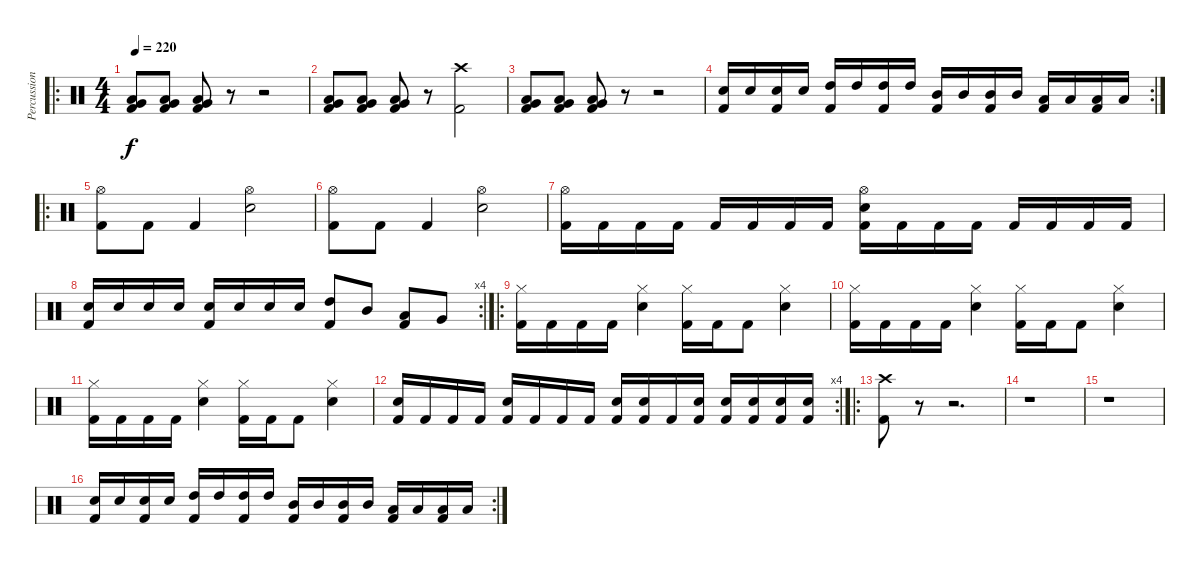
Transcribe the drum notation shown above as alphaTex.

\track ("Percussion" "Percussion") {instrument percussion}
\staff {score}
\articulation defaults
\ro
\ts (4 4)
\tempo 220
\clef neutral
\ks c
("Low Tom (hit)" "Very Low Tom (hit)" "Kick (hit) 2").8{dy f} ("Low Tom (hit)" "Very Low Tom (hit)" "Kick (hit) 2").8 ("Low Tom (hit)" "Very Low Tom (hit)" "Kick (hit) 2").8 r.8 r.2 |
("Low Tom (hit)" "Very Low Tom (hit)" "Kick (hit) 2").8 ("Low Tom (hit)" "Very Low Tom (hit)" "Kick (hit) 2").8 ("Low Tom (hit)" "Very Low Tom (hit)" "Kick (hit) 2").8 r.8 ("Kick (hit) 2" "Crash high (hit)").2 |
("Low Tom (hit)" "Very Low Tom (hit)" "Kick (hit) 2").8 ("Low Tom (hit)" "Very Low Tom (hit)" "Kick (hit) 2").8 ("Low Tom (hit)" "Very Low Tom (hit)" "Kick (hit) 2").8 r.8 r.2 |
\rc 2
("Snare (hit) 2" "Kick (hit) 2").16 "Snare (hit) 2".16 ("Snare (hit) 2" "Kick (hit) 2").16 "Snare (hit) 2".16 ("High Tom (hit)" "Kick (hit) 2").16 "High Tom (hit)".16 ("High Tom (hit)" "Kick (hit) 2").16 "High Tom (hit)".16 ("Mid Tom (hit)" "Kick (hit) 2").16 "Mid Tom (hit)".16 ("Mid Tom (hit)" "Kick (hit) 2").16 "Mid Tom (hit)".16 ("Low Tom (hit)" "Kick (hit) 2").16 "Low Tom (hit)".16 ("Low Tom (hit)" "Kick (hit) 2").16 "Low Tom (hit)".16 |
\ro
("Hi-Hat (open)" "Kick (hit) 2").8 "Kick (hit) 2".8 "Kick (hit) 2".4 ("Hi-Hat (open)" "Snare (hit) 2").2 |
("Hi-Hat (open)" "Kick (hit) 2").8 "Kick (hit) 2".8 "Kick (hit) 2".4 ("Hi-Hat (open)" "Snare (hit) 2").2 |
("Hi-Hat (open)" "Kick (hit) 2").16 "Kick (hit) 2".16 "Kick (hit) 2".16 "Kick (hit) 2".16 "Kick (hit) 2".16 "Kick (hit) 2".16 "Kick (hit) 2".16 "Kick (hit) 2".16 ("Hi-Hat (open)" "Snare (hit) 2" "Kick (hit) 2").16 "Kick (hit) 2".16 "Kick (hit) 2".16 "Kick (hit) 2".16 "Kick (hit) 2".16 "Kick (hit) 2".16 "Kick (hit) 2".16 "Kick (hit) 2".16 |
\rc 4
("Snare (hit) 2" "Kick (hit) 2").16 "Snare (hit) 2".16 "Snare (hit) 2".16 "Snare (hit) 2".16 ("Snare (hit) 2" "Kick (hit) 2").16 "Snare (hit) 2".16 "Snare (hit) 2".16 "Snare (hit) 2".16 ("High Tom (hit)" "Kick (hit) 2").8 "Mid Tom (hit)".8 ("Low Tom (hit)" "Kick (hit) 2").8 "Very Low Tom (hit)".8 |
\ro
("Hi-Hat (closed)" "Kick (hit) 2").16 "Kick (hit) 2".16 "Kick (hit) 2".16 "Kick (hit) 2".16 ("Hi-Hat (closed)" "Snare (hit) 2").4 ("Hi-Hat (closed)" "Kick (hit) 2").16 "Kick (hit) 2".16 "Kick (hit) 2".8 ("Hi-Hat (closed)" "Snare (hit) 2").4 |
("Hi-Hat (closed)" "Kick (hit) 2").16 "Kick (hit) 2".16 "Kick (hit) 2".16 "Kick (hit) 2".16 ("Hi-Hat (closed)" "Snare (hit) 2").4 ("Hi-Hat (closed)" "Kick (hit) 2").16 "Kick (hit) 2".16 "Kick (hit) 2".8 ("Hi-Hat (closed)" "Snare (hit) 2").4 |
("Hi-Hat (closed)" "Kick (hit) 2").16 "Kick (hit) 2".16 "Kick (hit) 2".16 "Kick (hit) 2".16 ("Hi-Hat (closed)" "Snare (hit) 2").4 ("Hi-Hat (closed)" "Kick (hit) 2").16 "Kick (hit) 2".16 "Kick (hit) 2".8 ("Hi-Hat (closed)" "Snare (hit) 2").4 |
\rc 4
("Snare (hit) 2" "Kick (hit) 2").16 "Kick (hit) 2".16 "Kick (hit) 2".16 "Kick (hit) 2".16 ("Snare (hit) 2" "Kick (hit) 2").16 "Kick (hit) 2".16 "Kick (hit) 2".16 "Kick (hit) 2".16 ("Snare (hit) 2" "Kick (hit) 2").16 ("Snare (hit) 2" "Kick (hit) 2").16 "Kick (hit) 2".16 ("Snare (hit) 2" "Kick (hit) 2").16 ("Snare (hit) 2" "Kick (hit) 2").16 ("Snare (hit) 2" "Kick (hit) 2").16 ("Snare (hit) 2" "Kick (hit) 2").16 ("Snare (hit) 2" "Kick (hit) 2").16 |
\ro
("Crash high (hit)" "Kick (hit) 2").8 r.8 r.2{d} |
r.1 |
r.1 |
\rc 2
("Snare (hit) 2" "Kick (hit) 2").16 "Snare (hit) 2".16 ("Snare (hit) 2" "Kick (hit) 2").16 "Snare (hit) 2".16 ("High Tom (hit)" "Kick (hit) 2").16 "High Tom (hit)".16 ("High Tom (hit)" "Kick (hit) 2").16 "High Tom (hit)".16 ("Mid Tom (hit)" "Kick (hit) 2").16 "Mid Tom (hit)".16 ("Mid Tom (hit)" "Kick (hit) 2").16 "Mid Tom (hit)".16 ("Low Tom (hit)" "Kick (hit) 2").16 "Low Tom (hit)".16 ("Low Tom (hit)" "Kick (hit) 2").16 "Low Tom (hit)".16
